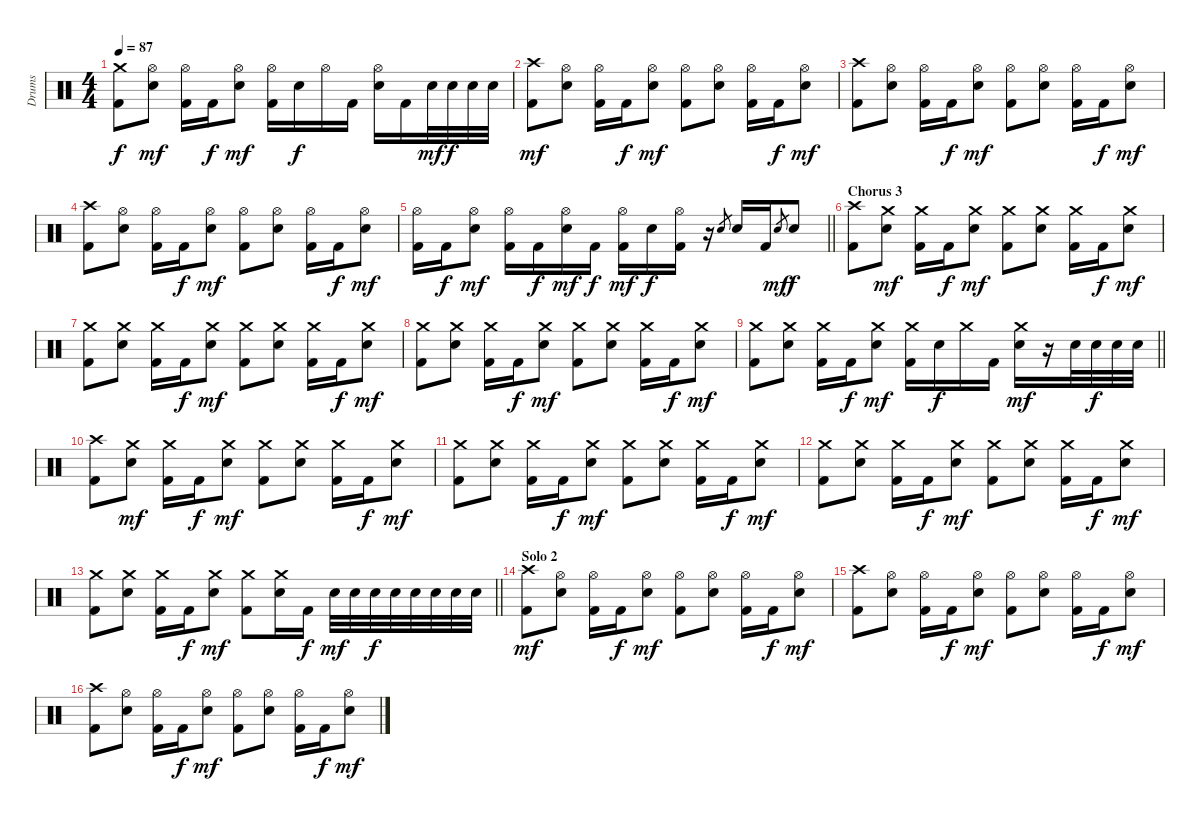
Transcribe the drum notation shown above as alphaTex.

\track ("Drums" "Drums") {instrument percussion}
\staff {score}
\articulation defaults
\ts (4 4)
\tempo 87
\clef neutral
\ks c
("Crash medium (hit)" "Kick (hit) 2").8{dy f} ("Hi-Hat (open)" "Electric Snare (hit)").8{dy mf} ("Hi-Hat (open)" "Kick (hit) 2").16 "Kick (hit) 2".16{dy f} ("Hi-Hat (open)" "Electric Snare (hit)").8{dy mf} ("Hi-Hat (open)" "Kick (hit) 2").16 "Electric Snare (hit)".16{dy f} "Hi-Hat (open)".16 "Kick (hit) 2".16 ("Hi-Hat (open)" "Electric Snare (hit)").16 "Kick (hit) 2".16 "Electric Snare (hit)".32{dy mf} "Electric Snare (hit)".32{dy f} "Electric Snare (hit)".32 "Electric Snare (hit)".32 |
("Crash high (hit)" "Kick (hit) 2").8{dy mf} ("Hi-Hat (open)" "Electric Snare (hit)").8 ("Hi-Hat (open)" "Kick (hit) 2").16 "Kick (hit) 2".16{dy f} ("Hi-Hat (open)" "Electric Snare (hit)").8{dy mf} ("Hi-Hat (open)" "Kick (hit) 2").8 ("Hi-Hat (open)" "Electric Snare (hit)").8 ("Hi-Hat (open)" "Kick (hit) 2").16 "Kick (hit) 2".16{dy f} ("Hi-Hat (open)" "Electric Snare (hit)").8{dy mf} |
("Crash high (hit)" "Kick (hit) 2").8 ("Hi-Hat (open)" "Electric Snare (hit)").8 ("Hi-Hat (open)" "Kick (hit) 2").16 "Kick (hit) 2".16{dy f} ("Hi-Hat (open)" "Electric Snare (hit)").8{dy mf} ("Hi-Hat (open)" "Kick (hit) 2").8 ("Hi-Hat (open)" "Electric Snare (hit)").8 ("Hi-Hat (open)" "Kick (hit) 2").16 "Kick (hit) 2".16{dy f} ("Hi-Hat (open)" "Electric Snare (hit)").8{dy mf} |
("Crash high (hit)" "Kick (hit) 2").8 ("Hi-Hat (open)" "Electric Snare (hit)").8 ("Hi-Hat (open)" "Kick (hit) 2").16 "Kick (hit) 2".16{dy f} ("Hi-Hat (open)" "Electric Snare (hit)").8{dy mf} ("Hi-Hat (open)" "Kick (hit) 2").8 ("Hi-Hat (open)" "Electric Snare (hit)").8 ("Hi-Hat (open)" "Kick (hit) 2").16 "Kick (hit) 2".16{dy f} ("Hi-Hat (open)" "Electric Snare (hit)").8{dy mf} |
\barLineRight lightlight
("Hi-Hat (open)" "Kick (hit) 2").16 "Kick (hit) 2".16{dy f} ("Hi-Hat (open)" "Electric Snare (hit)").8{dy mf} ("Hi-Hat (open)" "Kick (hit) 2").16 "Kick (hit) 2".16{dy f} ("Hi-Hat (open)" "Electric Snare (hit)").16{dy mf} "Kick (hit) 2".16{dy f} ("Hi-Hat (open)" "Kick (hit) 2").16{dy mf} "Electric Snare (hit)".16{dy f} ("Hi-Hat (open)" "Kick (hit) 2").16 r.16 "Electric Snare (hit)".8{gr} "Electric Snare (hit)".16 "Kick (hit) 2".16 "Electric Snare (hit)".8{gr dy mf} "Electric Snare (hit)".8{dy f} |
\section ("" "Chorus 3")
("Crash high (hit)" "Kick (hit) 2").8 ("Crash medium (hit)" "Electric Snare (hit)").8{dy mf} ("Crash medium (hit)" "Kick (hit) 2").16 "Kick (hit) 2".16{dy f} ("Crash medium (hit)" "Electric Snare (hit)").8{dy mf} ("Crash medium (hit)" "Kick (hit) 2").8 ("Crash medium (hit)" "Electric Snare (hit)").8 ("Crash medium (hit)" "Kick (hit) 2").16 "Kick (hit) 2".16{dy f} ("Crash medium (hit)" "Electric Snare (hit)").8{dy mf} |
("Crash medium (hit)" "Kick (hit) 2").8 ("Crash medium (hit)" "Electric Snare (hit)").8 ("Crash medium (hit)" "Kick (hit) 2").16 "Kick (hit) 2".16{dy f} ("Crash medium (hit)" "Electric Snare (hit)").8{dy mf} ("Crash medium (hit)" "Kick (hit) 2").8 ("Crash medium (hit)" "Electric Snare (hit)").8 ("Crash medium (hit)" "Kick (hit) 2").16 "Kick (hit) 2".16{dy f} ("Crash medium (hit)" "Electric Snare (hit)").8{dy mf} |
("Crash medium (hit)" "Kick (hit) 2").8 ("Crash medium (hit)" "Electric Snare (hit)").8 ("Crash medium (hit)" "Kick (hit) 2").16 "Kick (hit) 2".16{dy f} ("Crash medium (hit)" "Electric Snare (hit)").8{dy mf} ("Crash medium (hit)" "Kick (hit) 2").8 ("Crash medium (hit)" "Electric Snare (hit)").8 ("Crash medium (hit)" "Kick (hit) 2").16 "Kick (hit) 2".16{dy f} ("Crash medium (hit)" "Electric Snare (hit)").8{dy mf} |
\barLineRight lightlight
("Crash medium (hit)" "Kick (hit) 2").8 ("Crash medium (hit)" "Electric Snare (hit)").8 ("Crash medium (hit)" "Kick (hit) 2").16 "Kick (hit) 2".16{dy f} ("Crash medium (hit)" "Electric Snare (hit)").8{dy mf} ("Crash medium (hit)" "Kick (hit) 2").16 "Electric Snare (hit)".16{dy f} "Crash medium (hit)".16 "Kick (hit) 2".16 ("Crash medium (hit)" "Electric Snare (hit)").16{dy mf} r.16 "Electric Snare (hit)".32 "Electric Snare (hit)".32{dy f} "Electric Snare (hit)".32 "Electric Snare (hit)".32 |
("Crash high (hit)" "Kick (hit) 2").8 ("Crash medium (hit)" "Electric Snare (hit)").8{dy mf} ("Crash medium (hit)" "Kick (hit) 2").16 "Kick (hit) 2".16{dy f} ("Crash medium (hit)" "Electric Snare (hit)").8{dy mf} ("Crash medium (hit)" "Kick (hit) 2").8 ("Crash medium (hit)" "Electric Snare (hit)").8 ("Crash medium (hit)" "Kick (hit) 2").16 "Kick (hit) 2".16{dy f} ("Crash medium (hit)" "Electric Snare (hit)").8{dy mf} |
("Crash medium (hit)" "Kick (hit) 2").8 ("Crash medium (hit)" "Electric Snare (hit)").8 ("Crash medium (hit)" "Kick (hit) 2").16 "Kick (hit) 2".16{dy f} ("Crash medium (hit)" "Electric Snare (hit)").8{dy mf} ("Crash medium (hit)" "Kick (hit) 2").8 ("Crash medium (hit)" "Electric Snare (hit)").8 ("Crash medium (hit)" "Kick (hit) 2").16 "Kick (hit) 2".16{dy f} ("Crash medium (hit)" "Electric Snare (hit)").8{dy mf} |
("Crash medium (hit)" "Kick (hit) 2").8 ("Crash medium (hit)" "Electric Snare (hit)").8 ("Crash medium (hit)" "Kick (hit) 2").16 "Kick (hit) 2".16{dy f} ("Crash medium (hit)" "Electric Snare (hit)").8{dy mf} ("Crash medium (hit)" "Kick (hit) 2").8 ("Crash medium (hit)" "Electric Snare (hit)").8 ("Crash medium (hit)" "Kick (hit) 2").16 "Kick (hit) 2".16{dy f} ("Crash medium (hit)" "Electric Snare (hit)").8{dy mf} |
\barLineRight lightlight
("Crash medium (hit)" "Kick (hit) 2").8 ("Crash medium (hit)" "Electric Snare (hit)").8 ("Crash medium (hit)" "Kick (hit) 2").16 "Kick (hit) 2".16{dy f} ("Crash medium (hit)" "Electric Snare (hit)").8{dy mf} ("Crash medium (hit)" "Kick (hit) 2").8 ("Crash medium (hit)" "Electric Snare (hit)").16 "Kick (hit) 2".16{dy f} "Electric Snare (hit)".32{dy mf} "Electric Snare (hit)".32 "Electric Snare (hit)".32{dy f} "Electric Snare (hit)".32 "Electric Snare (hit)".32 "Electric Snare (hit)".32 "Electric Snare (hit)".32 "Electric Snare (hit)".32 |
\section ("" "Solo 2")
("Crash high (hit)" "Kick (hit) 2").8{dy mf} ("Hi-Hat (open)" "Electric Snare (hit)").8 ("Hi-Hat (open)" "Kick (hit) 2").16 "Kick (hit) 2".16{dy f} ("Hi-Hat (open)" "Electric Snare (hit)").8{dy mf} ("Hi-Hat (open)" "Kick (hit) 2").8 ("Hi-Hat (open)" "Electric Snare (hit)").8 ("Hi-Hat (open)" "Kick (hit) 2").16 "Kick (hit) 2".16{dy f} ("Hi-Hat (open)" "Electric Snare (hit)").8{dy mf} |
("Crash high (hit)" "Kick (hit) 2").8 ("Hi-Hat (open)" "Electric Snare (hit)").8 ("Hi-Hat (open)" "Kick (hit) 2").16 "Kick (hit) 2".16{dy f} ("Hi-Hat (open)" "Electric Snare (hit)").8{dy mf} ("Hi-Hat (open)" "Kick (hit) 2").8 ("Hi-Hat (open)" "Electric Snare (hit)").8 ("Hi-Hat (open)" "Kick (hit) 2").16 "Kick (hit) 2".16{dy f} ("Hi-Hat (open)" "Electric Snare (hit)").8{dy mf} |
("Crash high (hit)" "Kick (hit) 2").8 ("Hi-Hat (open)" "Electric Snare (hit)").8 ("Hi-Hat (open)" "Kick (hit) 2").16 "Kick (hit) 2".16{dy f} ("Hi-Hat (open)" "Electric Snare (hit)").8{dy mf} ("Hi-Hat (open)" "Kick (hit) 2").8 ("Hi-Hat (open)" "Electric Snare (hit)").8 ("Hi-Hat (open)" "Kick (hit) 2").16 "Kick (hit) 2".16{dy f} ("Hi-Hat (open)" "Electric Snare (hit)").8{dy mf}
